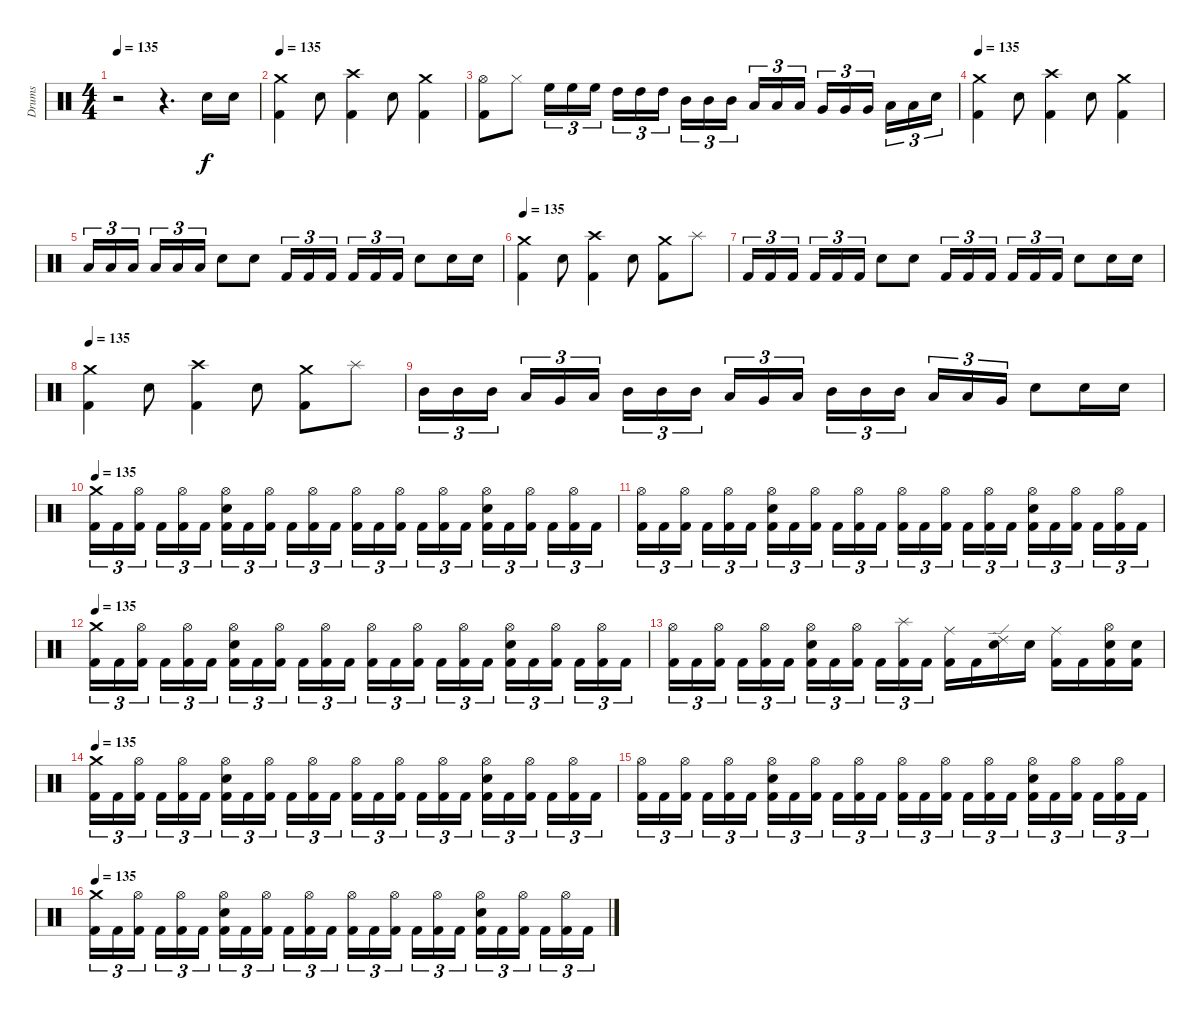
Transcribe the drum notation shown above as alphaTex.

\track ("Drums" "Drums") {instrument percussion}
\staff {score}
\articulation defaults
\ts (4 4)
\tempo 135
\clef neutral
\ks c
r.2{dy f} r.4{d} "Electric Snare (hit)".16 "Electric Snare (hit)".16 |
\tempo 135
("Crash medium (hit)" "Kick (hit) 2").4 "Electric Snare (hit)".8 ("Crash high (hit)" "Kick (hit) 2").4 "Electric Snare (hit)".8 ("Crash medium (hit)" "Kick (hit) 2").4 |
("Hi-Hat (open)" "Kick (hit) 2").8 "Hi-Hat (closed)".8 "High Floor Tom (hit)".16{tu (3 2)} "High Floor Tom (hit)".16{tu (3 2)} "High Floor Tom (hit)".16{tu (3 2)} "High Tom (hit)".16{tu (3 2)} "High Tom (hit)".16{tu (3 2)} "High Tom (hit)".16{tu (3 2)} "Mid Tom (hit)".16{tu (3 2)} "Mid Tom (hit)".16{tu (3 2)} "Mid Tom (hit)".16{tu (3 2)} "Low Tom (hit)".16{tu (3 2)} "Low Tom (hit)".16{tu (3 2)} "Low Tom (hit)".16{tu (3 2)} "Very Low Tom (hit)".16{tu (3 2)} "Very Low Tom (hit)".16{tu (3 2)} "Very Low Tom (hit)".16{tu (3 2)} "Low Floor Tom (hit)".16{tu (3 2)} "Low Floor Tom (hit)".16{tu (3 2)} "Snare (hit)".16{tu (3 2)} |
\tempo 135
("Crash medium (hit)" "Kick (hit) 2").4 "Electric Snare (hit)".8 ("Crash high (hit)" "Kick (hit) 2").4 "Electric Snare (hit)".8 ("Crash medium (hit)" "Kick (hit) 2").4 |
"Low Floor Tom (hit)".16{tu (3 2)} "Low Floor Tom (hit)".16{tu (3 2)} "Low Floor Tom (hit)".16{tu (3 2)} "Low Floor Tom (hit)".16{tu (3 2)} "Low Floor Tom (hit)".16{tu (3 2)} "Low Floor Tom (hit)".16{tu (3 2)} "Electric Snare (hit)".8 "Electric Snare (hit)".8 "Kick (hit) 2".16{tu (3 2)} "Kick (hit) 2".16{tu (3 2)} "Kick (hit) 2".16{tu (3 2)} "Kick (hit) 2".16{tu (3 2)} "Kick (hit) 2".16{tu (3 2)} "Kick (hit) 2".16{tu (3 2)} "Electric Snare (hit)".8 "Electric Snare (hit)".16 "Electric Snare (hit)".16 |
\tempo 135
("Crash medium (hit)" "Kick (hit) 2").4 "Electric Snare (hit)".8 ("Crash high (hit)" "Kick (hit) 2").4 "Electric Snare (hit)".8 ("Crash medium (hit)" "Kick (hit) 2").8 "Splash (hit)".8 |
"Kick (hit) 2".16{tu (3 2)} "Kick (hit) 2".16{tu (3 2)} "Kick (hit) 2".16{tu (3 2)} "Kick (hit) 2".16{tu (3 2)} "Kick (hit) 2".16{tu (3 2)} "Kick (hit) 2".16{tu (3 2)} "Electric Snare (hit)".8 "Electric Snare (hit)".8 "Kick (hit) 2".16{tu (3 2)} "Kick (hit) 2".16{tu (3 2)} "Kick (hit) 2".16{tu (3 2)} "Kick (hit) 2".16{tu (3 2)} "Kick (hit) 2".16{tu (3 2)} "Kick (hit) 2".16{tu (3 2)} "Electric Snare (hit)".8 "Electric Snare (hit)".16 "Electric Snare (hit)".16 |
\tempo 135
("Crash medium (hit)" "Kick (hit) 2").4 "Electric Snare (hit)".8 ("Crash high (hit)" "Kick (hit) 2").4 "Electric Snare (hit)".8 ("Crash medium (hit)" "Kick (hit) 2").8 "Splash (hit)".8 |
"Mid Tom (hit)".16{tu (3 2)} "Mid Tom (hit)".16{tu (3 2)} "Mid Tom (hit)".16{tu (3 2)} "Low Tom (hit)".16{tu (3 2)} "Very Low Tom (hit)".16{tu (3 2)} "Low Floor Tom (hit)".16{tu (3 2)} "Mid Tom (hit)".16{tu (3 2)} "Mid Tom (hit)".16{tu (3 2)} "Mid Tom (hit)".16{tu (3 2)} "Low Tom (hit)".16{tu (3 2)} "Very Low Tom (hit)".16{tu (3 2)} "Low Floor Tom (hit)".16{tu (3 2)} "Mid Tom (hit)".16{tu (3 2)} "Mid Tom (hit)".16{tu (3 2)} "Mid Tom (hit)".16{tu (3 2)} "Low Tom (hit)".16{tu (3 2)} "Low Tom (hit)".16{tu (3 2)} "Very Low Tom (hit)".16{tu (3 2)} "Electric Snare (hit)".8 "Electric Snare (hit)".16 "Electric Snare (hit)".16 |
\tempo 135
("Crash medium (hit)" "Kick (hit) 2").16{tu (3 2)} "Kick (hit) 2".16{tu (3 2)} ("Hi-Hat (open)" "Kick (hit) 2").16{tu (3 2)} "Kick (hit) 2".16{tu (3 2)} ("Hi-Hat (open)" "Kick (hit) 2").16{tu (3 2)} "Kick (hit) 2".16{tu (3 2)} ("Hi-Hat (open)" "Electric Snare (hit)" "Kick (hit) 2").16{tu (3 2)} "Kick (hit) 2".16{tu (3 2)} ("Hi-Hat (open)" "Kick (hit) 2").16{tu (3 2)} "Kick (hit) 2".16{tu (3 2)} ("Hi-Hat (open)" "Kick (hit) 2").16{tu (3 2)} "Kick (hit) 2".16{tu (3 2)} ("Hi-Hat (open)" "Kick (hit) 2").16{tu (3 2)} "Kick (hit) 2".16{tu (3 2)} ("Hi-Hat (open)" "Kick (hit) 2").16{tu (3 2)} "Kick (hit) 2".16{tu (3 2)} ("Hi-Hat (open)" "Kick (hit) 2").16{tu (3 2)} "Kick (hit) 2".16{tu (3 2)} ("Hi-Hat (open)" "Electric Snare (hit)" "Kick (hit) 2").16{tu (3 2)} "Kick (hit) 2".16{tu (3 2)} ("Hi-Hat (open)" "Kick (hit) 2").16{tu (3 2)} "Kick (hit) 2".16{tu (3 2)} ("Hi-Hat (open)" "Kick (hit) 2").16{tu (3 2)} "Kick (hit) 2".16{tu (3 2)} |
("Hi-Hat (open)" "Kick (hit) 2").16{tu (3 2)} "Kick (hit) 2".16{tu (3 2)} ("Hi-Hat (open)" "Kick (hit) 2").16{tu (3 2)} "Kick (hit) 2".16{tu (3 2)} ("Hi-Hat (open)" "Kick (hit) 2").16{tu (3 2)} "Kick (hit) 2".16{tu (3 2)} ("Hi-Hat (open)" "Electric Snare (hit)" "Kick (hit) 2").16{tu (3 2)} "Kick (hit) 2".16{tu (3 2)} ("Hi-Hat (open)" "Kick (hit) 2").16{tu (3 2)} "Kick (hit) 2".16{tu (3 2)} ("Hi-Hat (open)" "Kick (hit) 2").16{tu (3 2)} "Kick (hit) 2".16{tu (3 2)} ("Hi-Hat (open)" "Kick (hit) 2").16{tu (3 2)} "Kick (hit) 2".16{tu (3 2)} ("Hi-Hat (open)" "Kick (hit) 2").16{tu (3 2)} "Kick (hit) 2".16{tu (3 2)} ("Hi-Hat (open)" "Kick (hit) 2").16{tu (3 2)} "Kick (hit) 2".16{tu (3 2)} ("Hi-Hat (open)" "Electric Snare (hit)" "Kick (hit) 2").16{tu (3 2)} "Kick (hit) 2".16{tu (3 2)} ("Hi-Hat (open)" "Kick (hit) 2").16{tu (3 2)} "Kick (hit) 2".16{tu (3 2)} ("Hi-Hat (open)" "Kick (hit) 2").16{tu (3 2)} "Kick (hit) 2".16{tu (3 2)} |
\tempo 135
("Crash medium (hit)" "Kick (hit) 2").16{tu (3 2)} "Kick (hit) 2".16{tu (3 2)} ("Hi-Hat (open)" "Kick (hit) 2").16{tu (3 2)} "Kick (hit) 2".16{tu (3 2)} ("Hi-Hat (open)" "Kick (hit) 2").16{tu (3 2)} "Kick (hit) 2".16{tu (3 2)} ("Hi-Hat (open)" "Electric Snare (hit)" "Kick (hit) 2").16{tu (3 2)} "Kick (hit) 2".16{tu (3 2)} ("Hi-Hat (open)" "Kick (hit) 2").16{tu (3 2)} "Kick (hit) 2".16{tu (3 2)} ("Hi-Hat (open)" "Kick (hit) 2").16{tu (3 2)} "Kick (hit) 2".16{tu (3 2)} ("Hi-Hat (open)" "Kick (hit) 2").16{tu (3 2)} "Kick (hit) 2".16{tu (3 2)} ("Hi-Hat (open)" "Kick (hit) 2").16{tu (3 2)} "Kick (hit) 2".16{tu (3 2)} ("Hi-Hat (open)" "Kick (hit) 2").16{tu (3 2)} "Kick (hit) 2".16{tu (3 2)} ("Hi-Hat (open)" "Electric Snare (hit)" "Kick (hit) 2").16{tu (3 2)} "Kick (hit) 2".16{tu (3 2)} ("Hi-Hat (open)" "Kick (hit) 2").16{tu (3 2)} "Kick (hit) 2".16{tu (3 2)} ("Hi-Hat (open)" "Kick (hit) 2").16{tu (3 2)} "Kick (hit) 2".16{tu (3 2)} |
("Hi-Hat (open)" "Kick (hit) 2").16{tu (3 2)} "Kick (hit) 2".16{tu (3 2)} ("Hi-Hat (open)" "Kick (hit) 2").16{tu (3 2)} "Kick (hit) 2".16{tu (3 2)} ("Hi-Hat (open)" "Kick (hit) 2").16{tu (3 2)} "Kick (hit) 2".16{tu (3 2)} ("Hi-Hat (open)" "Electric Snare (hit)" "Kick (hit) 2").16{tu (3 2)} "Kick (hit) 2".16{tu (3 2)} ("Hi-Hat (open)" "Kick (hit) 2").16{tu (3 2)} "Kick (hit) 2".16{tu (3 2)} ("Splash (hit)" "Kick (hit) 2").16{tu (3 2)} "Kick (hit) 2".16{tu (3 2)} ("Ride (middle)" "Kick (hit) 2").16 "Kick (hit) 2".16 ("Ride (edge) 2" "Electric Snare (hit)").16 "Electric Snare (hit)".16 ("Ride (middle)" "Kick (hit) 2").16 "Kick (hit) 2".16 ("Hi-Hat (open)" "Electric Snare (hit)" "Kick (hit) 2").16 ("Electric Snare (hit)" "Kick (hit) 2").16 |
\tempo 135
("Crash medium (hit)" "Kick (hit) 2").16{tu (3 2)} "Kick (hit) 2".16{tu (3 2)} ("Hi-Hat (open)" "Kick (hit) 2").16{tu (3 2)} "Kick (hit) 2".16{tu (3 2)} ("Hi-Hat (open)" "Kick (hit) 2").16{tu (3 2)} "Kick (hit) 2".16{tu (3 2)} ("Hi-Hat (open)" "Electric Snare (hit)" "Kick (hit) 2").16{tu (3 2)} "Kick (hit) 2".16{tu (3 2)} ("Hi-Hat (open)" "Kick (hit) 2").16{tu (3 2)} "Kick (hit) 2".16{tu (3 2)} ("Hi-Hat (open)" "Kick (hit) 2").16{tu (3 2)} "Kick (hit) 2".16{tu (3 2)} ("Hi-Hat (open)" "Kick (hit) 2").16{tu (3 2)} "Kick (hit) 2".16{tu (3 2)} ("Hi-Hat (open)" "Kick (hit) 2").16{tu (3 2)} "Kick (hit) 2".16{tu (3 2)} ("Hi-Hat (open)" "Kick (hit) 2").16{tu (3 2)} "Kick (hit) 2".16{tu (3 2)} ("Hi-Hat (open)" "Electric Snare (hit)" "Kick (hit) 2").16{tu (3 2)} "Kick (hit) 2".16{tu (3 2)} ("Hi-Hat (open)" "Kick (hit) 2").16{tu (3 2)} "Kick (hit) 2".16{tu (3 2)} ("Hi-Hat (open)" "Kick (hit) 2").16{tu (3 2)} "Kick (hit) 2".16{tu (3 2)} |
("Hi-Hat (open)" "Kick (hit) 2").16{tu (3 2)} "Kick (hit) 2".16{tu (3 2)} ("Hi-Hat (open)" "Kick (hit) 2").16{tu (3 2)} "Kick (hit) 2".16{tu (3 2)} ("Hi-Hat (open)" "Kick (hit) 2").16{tu (3 2)} "Kick (hit) 2".16{tu (3 2)} ("Hi-Hat (open)" "Electric Snare (hit)" "Kick (hit) 2").16{tu (3 2)} "Kick (hit) 2".16{tu (3 2)} ("Hi-Hat (open)" "Kick (hit) 2").16{tu (3 2)} "Kick (hit) 2".16{tu (3 2)} ("Hi-Hat (open)" "Kick (hit) 2").16{tu (3 2)} "Kick (hit) 2".16{tu (3 2)} ("Hi-Hat (open)" "Kick (hit) 2").16{tu (3 2)} "Kick (hit) 2".16{tu (3 2)} ("Hi-Hat (open)" "Kick (hit) 2").16{tu (3 2)} "Kick (hit) 2".16{tu (3 2)} ("Hi-Hat (open)" "Kick (hit) 2").16{tu (3 2)} "Kick (hit) 2".16{tu (3 2)} ("Hi-Hat (open)" "Electric Snare (hit)" "Kick (hit) 2").16{tu (3 2)} "Kick (hit) 2".16{tu (3 2)} ("Hi-Hat (open)" "Kick (hit) 2").16{tu (3 2)} "Kick (hit) 2".16{tu (3 2)} ("Hi-Hat (open)" "Kick (hit) 2").16{tu (3 2)} "Kick (hit) 2".16{tu (3 2)} |
\tempo 135
("Crash medium (hit)" "Kick (hit) 2").16{tu (3 2)} "Kick (hit) 2".16{tu (3 2)} ("Hi-Hat (open)" "Kick (hit) 2").16{tu (3 2)} "Kick (hit) 2".16{tu (3 2)} ("Hi-Hat (open)" "Kick (hit) 2").16{tu (3 2)} "Kick (hit) 2".16{tu (3 2)} ("Hi-Hat (open)" "Electric Snare (hit)" "Kick (hit) 2").16{tu (3 2)} "Kick (hit) 2".16{tu (3 2)} ("Hi-Hat (open)" "Kick (hit) 2").16{tu (3 2)} "Kick (hit) 2".16{tu (3 2)} ("Hi-Hat (open)" "Kick (hit) 2").16{tu (3 2)} "Kick (hit) 2".16{tu (3 2)} ("Hi-Hat (open)" "Kick (hit) 2").16{tu (3 2)} "Kick (hit) 2".16{tu (3 2)} ("Hi-Hat (open)" "Kick (hit) 2").16{tu (3 2)} "Kick (hit) 2".16{tu (3 2)} ("Hi-Hat (open)" "Kick (hit) 2").16{tu (3 2)} "Kick (hit) 2".16{tu (3 2)} ("Hi-Hat (open)" "Electric Snare (hit)" "Kick (hit) 2").16{tu (3 2)} "Kick (hit) 2".16{tu (3 2)} ("Hi-Hat (open)" "Kick (hit) 2").16{tu (3 2)} "Kick (hit) 2".16{tu (3 2)} ("Hi-Hat (open)" "Kick (hit) 2").16{tu (3 2)} "Kick (hit) 2".16{tu (3 2)}
